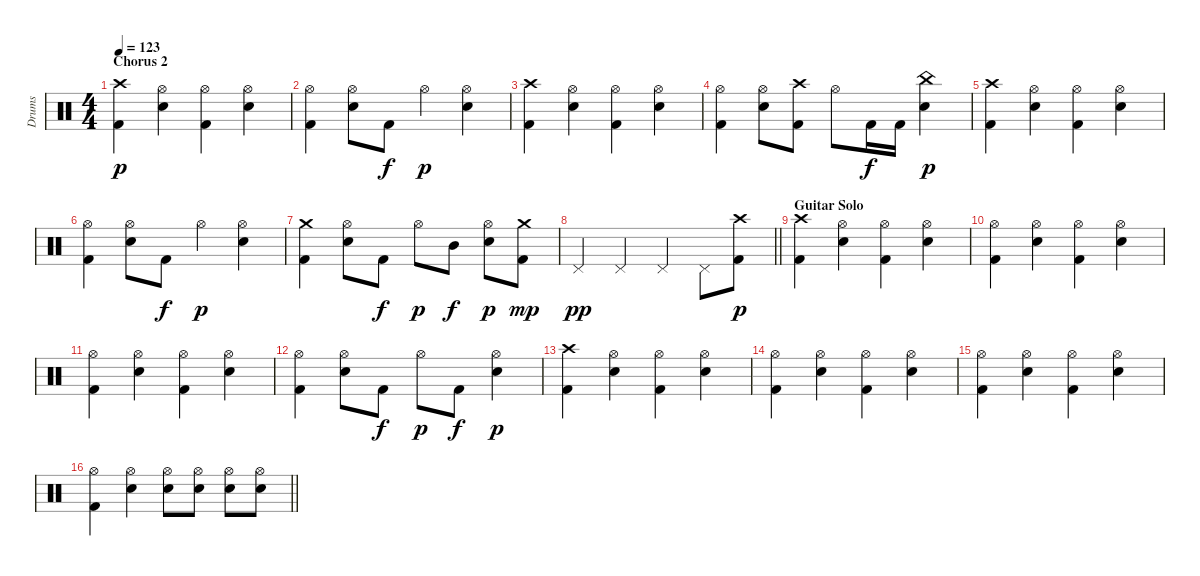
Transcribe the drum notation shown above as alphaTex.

\track ("Drums" "Drums") {instrument percussion}
\staff {score}
\articulation defaults
\ts (4 4)
\section ("" "Chorus 2")
\tempo 123
\clef neutral
\ks c
("Kick (hit) 2" "Crash high (hit)").4{dy p} ("Electric Snare (hit)" "Hi-Hat (open)").4 ("Kick (hit) 2" "Hi-Hat (open)").4 ("Electric Snare (hit)" "Hi-Hat (open)").4 |
("Kick (hit) 2" "Hi-Hat (open)").4 ("Electric Snare (hit)" "Hi-Hat (open)").8 "Kick (hit) 2".8{dy f} "Hi-Hat (open)".4{dy p} ("Electric Snare (hit)" "Hi-Hat (open)").4 |
("Kick (hit) 2" "Crash high (hit)").4 ("Electric Snare (hit)" "Hi-Hat (open)").4 ("Kick (hit) 2" "Hi-Hat (open)").4 ("Electric Snare (hit)" "Hi-Hat (open)").4 |
("Kick (hit) 2" "Hi-Hat (open)").4 ("Electric Snare (hit)" "Hi-Hat (open)").8 ("Kick (hit) 2" "Crash high (hit)").8 "Hi-Hat (open)".8 "Kick (hit) 2".16{dy f} "Kick (hit) 2".16 ("Electric Snare (hit)" "China (hit)").4{dy p} |
("Kick (hit) 2" "Crash high (hit)").4 ("Electric Snare (hit)" "Hi-Hat (open)").4 ("Kick (hit) 2" "Hi-Hat (open)").4 ("Electric Snare (hit)" "Hi-Hat (open)").4 |
("Kick (hit) 2" "Hi-Hat (open)").4 ("Electric Snare (hit)" "Hi-Hat (open)").8 "Kick (hit) 2".8{dy f} "Hi-Hat (open)".4{dy p} ("Electric Snare (hit)" "Hi-Hat (open)").4 |
("Kick (hit) 2" "Crash medium (hit)").4 ("Electric Snare (hit)" "Hi-Hat (open)").8 "Kick (hit) 2".8{dy f} "Hi-Hat (open)".8{dy p} "Mid Tom (hit)".8{dy f} ("Electric Snare (hit)" "Hi-Hat (open)").8{dy p} ("Kick (hit) 2" "Crash medium (hit)").8{dy mp} |
\barLineRight lightlight "Pedal Hi-Hat (hit)".4{dy pp} "Pedal Hi-Hat (hit)".4 "Pedal Hi-Hat (hit)".4 "Pedal Hi-Hat (hit)".8
("Kick (hit) 2" "Crash high (hit)").8{dy p} |
\section ("" "Guitar Solo")
("Kick (hit) 2" "Crash high (hit)").4 ("Electric Snare (hit)" "Hi-Hat (open)").4 ("Kick (hit) 2" "Hi-Hat (open)").4 ("Electric Snare (hit)" "Hi-Hat (open)").4 |
("Kick (hit) 2" "Hi-Hat (open)").4 ("Electric Snare (hit)" "Hi-Hat (open)").4 ("Kick (hit) 2" "Hi-Hat (open)").4 ("Electric Snare (hit)" "Hi-Hat (open)").4 |
("Kick (hit) 2" "Hi-Hat (open)").4 ("Electric Snare (hit)" "Hi-Hat (open)").4 ("Kick (hit) 2" "Hi-Hat (open)").4 ("Electric Snare (hit)" "Hi-Hat (open)").4 |
("Kick (hit) 2" "Hi-Hat (open)").4 ("Electric Snare (hit)" "Hi-Hat (open)").8 "Kick (hit) 2".8{dy f} "Hi-Hat (open)".8{dy p} "Kick (hit) 2".8{dy f} ("Electric Snare (hit)" "Hi-Hat (open)").4{dy p} |
("Kick (hit) 2" "Crash high (hit)").4 ("Electric Snare (hit)" "Hi-Hat (open)").4 ("Kick (hit) 2" "Hi-Hat (open)").4 ("Electric Snare (hit)" "Hi-Hat (open)").4 |
("Kick (hit) 2" "Hi-Hat (open)").4 ("Electric Snare (hit)" "Hi-Hat (open)").4 ("Kick (hit) 2" "Hi-Hat (open)").4 ("Electric Snare (hit)" "Hi-Hat (open)").4 |
("Kick (hit) 2" "Hi-Hat (open)").4 ("Electric Snare (hit)" "Hi-Hat (open)").4 ("Kick (hit) 2" "Hi-Hat (open)").4 ("Electric Snare (hit)" "Hi-Hat (open)").4 |
\barLineRight lightlight
("Kick (hit) 2" "Hi-Hat (open)").4 ("Electric Snare (hit)" "Hi-Hat (open)").4 ("Electric Snare (hit)" "Hi-Hat (open)").8 ("Electric Snare (hit)" "Hi-Hat (open)").8 ("Hi-Hat (open)" "Electric Snare (hit)").8 ("Electric Snare (hit)" "Hi-Hat (open)").8
